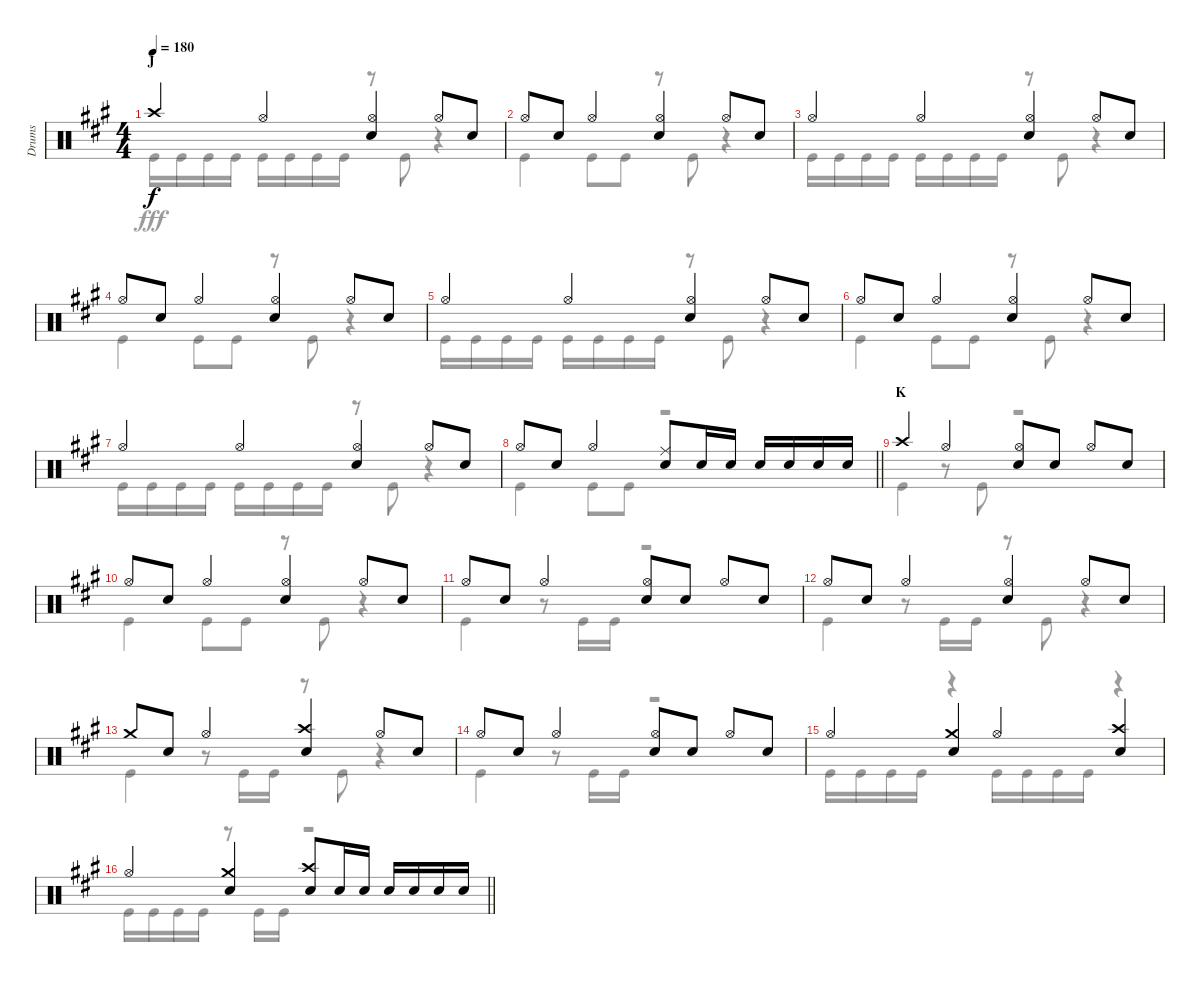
\track ("Drums" "Drums") {instrument percussion}
\staff {score}
\articulation defaults
\voice
\ts (4 4)
\section ("" "J")
\tempo 180
\clef neutral
\ks a "Crash high (hit)".4{dy f} "Hi-Hat (open)".4
("Hi-Hat (open)" "Snare (hit) 2").4 "Hi-Hat (open)".8 "Snare (hit) 2".8 |
"Hi-Hat (open)".8 "Snare (hit) 2".8 "Hi-Hat (open)".4 ("Hi-Hat (open)" "Snare (hit) 2").4 "Hi-Hat (open)".8 "Snare (hit) 2".8 |
"Hi-Hat (open)".4 "Hi-Hat (open)".4 ("Hi-Hat (open)" "Snare (hit) 2").4 "Hi-Hat (open)".8 "Snare (hit) 2".8 |
"Hi-Hat (open)".8 "Snare (hit) 2".8 "Hi-Hat (open)".4 ("Hi-Hat (open)" "Snare (hit) 2").4 "Hi-Hat (open)".8 "Snare (hit) 2".8 |
"Hi-Hat (open)".4 "Hi-Hat (open)".4 ("Hi-Hat (open)" "Snare (hit) 2").4 "Hi-Hat (open)".8 "Snare (hit) 2".8 |
"Hi-Hat (open)".8 "Snare (hit) 2".8 "Hi-Hat (open)".4 ("Hi-Hat (open)" "Snare (hit) 2").4 "Hi-Hat (open)".8 "Snare (hit) 2".8 |
"Hi-Hat (open)".4 "Hi-Hat (open)".4 ("Hi-Hat (open)" "Snare (hit) 2").4 "Hi-Hat (open)".8 "Snare (hit) 2".8 |
\barLineRight lightlight "Hi-Hat (open)".8 "Snare (hit) 2".8 "Hi-Hat (open)".4
("Ride (middle)" "Snare (hit) 2").8 "Snare (hit) 2".16 "Snare (hit) 2".16 "Snare (hit) 2".16 "Snare (hit) 2".16 "Snare (hit) 2".16 "Snare (hit) 2".16 |
\section ("" "K")
"Crash high (hit)".4 "Hi-Hat (open)".4 ("Hi-Hat (open)" "Snare (hit) 2").8 "Snare (hit) 2".8 "Hi-Hat (open)".8 "Snare (hit) 2".8 |
"Hi-Hat (open)".8 "Snare (hit) 2".8 "Hi-Hat (open)".4 ("Hi-Hat (open)" "Snare (hit) 2").4 "Hi-Hat (open)".8 "Snare (hit) 2".8 |
"Hi-Hat (open)".8 "Snare (hit) 2".8 "Hi-Hat (open)".4 ("Hi-Hat (open)" "Snare (hit) 2").8 "Snare (hit) 2".8 "Hi-Hat (open)".8 "Snare (hit) 2".8 |
"Hi-Hat (open)".8 "Snare (hit) 2".8 "Hi-Hat (open)".4 ("Hi-Hat (open)" "Snare (hit) 2").4 "Hi-Hat (open)".8 "Snare (hit) 2".8 |
"Crash medium (hit)".8 "Snare (hit) 2".8 "Hi-Hat (open)".4 ("Crash high (hit)" "Snare (hit) 2").4 "Hi-Hat (open)".8 "Snare (hit) 2".8 |
"Hi-Hat (open)".8 "Snare (hit) 2".8 "Hi-Hat (open)".4 ("Hi-Hat (open)" "Snare (hit) 2").8 "Snare (hit) 2".8 "Hi-Hat (open)".8 "Snare (hit) 2".8 |
"Hi-Hat (open)".4 ("Crash medium (hit)" "Snare (hit) 2").4 "Hi-Hat (open)".4 ("Crash high (hit)" "Snare (hit) 2").4 |
\barLineRight lightlight "Hi-Hat (open)".4
("Crash medium (hit)" "Snare (hit) 2").4 ("Crash high (hit)" "Snare (hit) 2").8 "Snare (hit) 2".16 "Snare (hit) 2".16 "Snare (hit) 2".16 "Snare (hit) 2".16 "Snare (hit) 2".16 "Snare (hit) 2".16
\voice
\clef neutral
\ottava regular
\simile none
\ks a "Kick (hit)".16{dy fff} "Kick (hit)".16 "Kick (hit)".16 "Kick (hit)".16 "Kick (hit)".16 "Kick (hit)".16 "Kick (hit)".16 "Kick (hit)".16
r.8 "Kick (hit)".8 r.4 |
"Kick (hit)".4 "Kick (hit)".8 "Kick (hit)".8 r.8 "Kick (hit)".8 r.4 |
"Kick (hit)".16 "Kick (hit)".16 "Kick (hit)".16 "Kick (hit)".16 "Kick (hit)".16 "Kick (hit)".16 "Kick (hit)".16 "Kick (hit)".16 r.8 "Kick (hit)".8 r.4 |
"Kick (hit)".4 "Kick (hit)".8 "Kick (hit)".8 r.8 "Kick (hit)".8 r.4 |
"Kick (hit)".16 "Kick (hit)".16 "Kick (hit)".16 "Kick (hit)".16 "Kick (hit)".16 "Kick (hit)".16 "Kick (hit)".16 "Kick (hit)".16 r.8 "Kick (hit)".8 r.4 |
"Kick (hit)".4 "Kick (hit)".8 "Kick (hit)".8 r.8 "Kick (hit)".8 r.4 |
"Kick (hit)".16 "Kick (hit)".16 "Kick (hit)".16 "Kick (hit)".16 "Kick (hit)".16 "Kick (hit)".16 "Kick (hit)".16 "Kick (hit)".16 r.8 "Kick (hit)".8 r.4 |
\barLineRight lightlight "Kick (hit)".4 "Kick (hit)".8 "Kick (hit)".8
r.2 |
"Kick (hit)".4 r.8 "Kick (hit)".8 r.2 |
"Kick (hit)".4 "Kick (hit)".8 "Kick (hit)".8 r.8 "Kick (hit)".8 r.4 |
"Kick (hit)".4 r.8 "Kick (hit)".16 "Kick (hit)".16 r.2 |
"Kick (hit)".4 r.8 "Kick (hit)".16 "Kick (hit)".16 r.8 "Kick (hit)".8 r.4 |
"Kick (hit)".4 r.8 "Kick (hit)".16 "Kick (hit)".16 r.8 "Kick (hit)".8 r.4 |
"Kick (hit)".4 r.8 "Kick (hit)".16 "Kick (hit)".16 r.2 |
"Kick (hit)".16 "Kick (hit)".16 "Kick (hit)".16 "Kick (hit)".16 r.4 "Kick (hit)".16 "Kick (hit)".16 "Kick (hit)".16 "Kick (hit)".16 r.4 |
\barLineRight lightlight "Kick (hit)".16 "Kick (hit)".16 "Kick (hit)".16 "Kick (hit)".16
r.8 "Kick (hit)".16 "Kick (hit)".16 r.2
